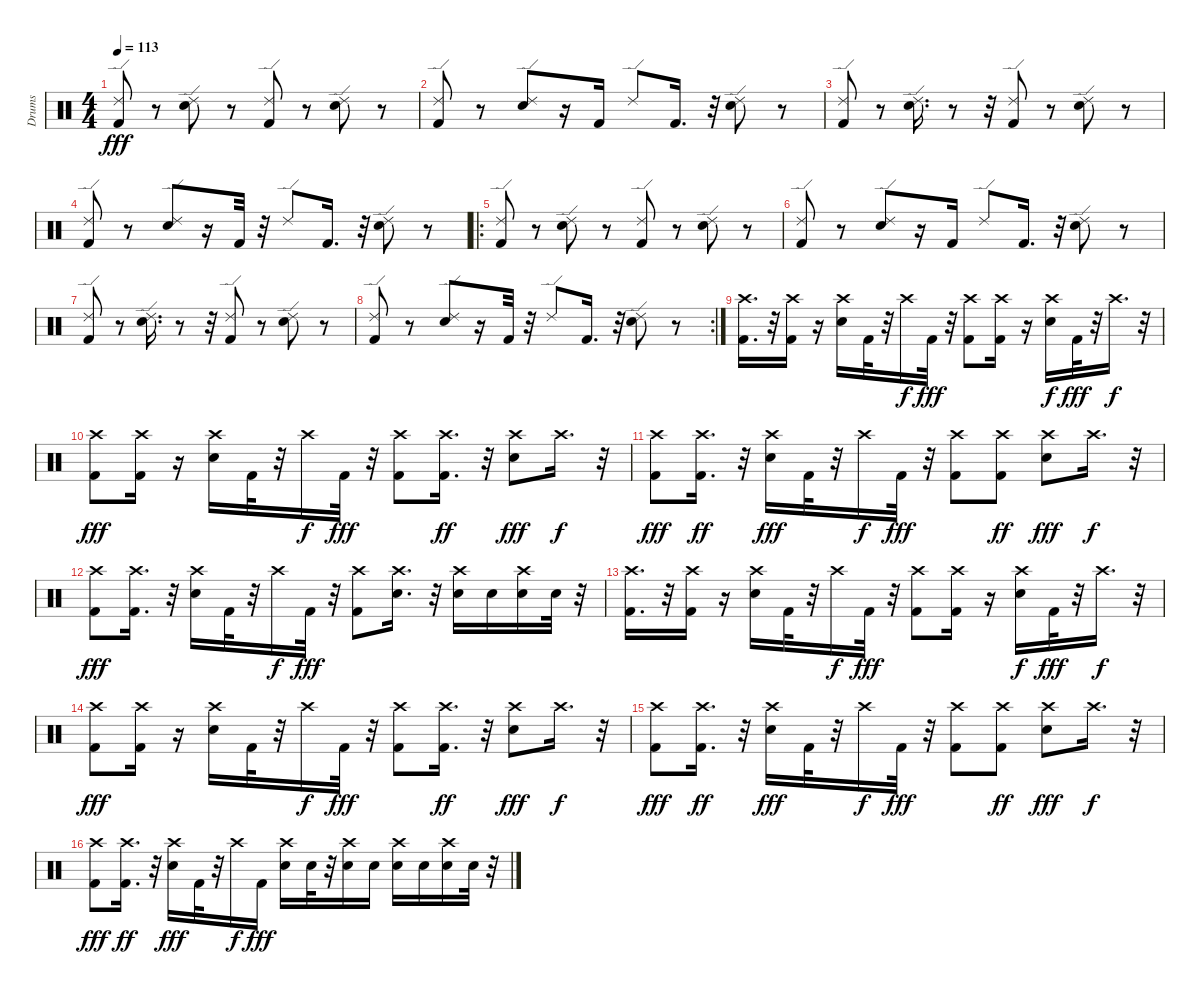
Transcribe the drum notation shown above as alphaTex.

\track ("Drums" "Drums") {instrument percussion}
\staff {score}
\articulation defaults
\ts (4 4)
\tempo 113
\clef neutral
\ks c
("Kick (hit) 2" "Ride (edge) 2").8{dy fff} r.8 ("Ride (edge) 2" "Snare (hit) 2").8 r.8 ("Kick (hit) 2" "Ride (edge) 2").8 r.8 ("Snare (hit) 2" "Ride (edge) 2").8 r.8 |
("Kick (hit) 2" "Ride (edge) 2").8 r.8 ("Snare (hit) 2" "Ride (edge) 2").8 r.16 "Kick (hit) 2".16 "Ride (edge) 2".8 "Kick (hit) 2".16{d} r.32 ("Snare (hit) 2" "Ride (edge) 2").8 r.8 |
("Kick (hit) 2" "Ride (edge) 2").8 r.8 ("Snare (hit) 2" "Ride (edge) 2").16{d} r.8 r.32 ("Kick (hit) 2" "Ride (edge) 2").8 r.8 ("Ride (edge) 2" "Snare (hit) 2").8 r.8 |
("Kick (hit) 2" "Ride (edge) 2").8 r.8 ("Snare (hit) 2" "Ride (edge) 2").8 r.16 "Kick (hit) 2".32 r.32 "Ride (edge) 2".8 "Kick (hit) 2".16{d} r.32 ("Snare (hit) 2" "Ride (edge) 2").8 r.8 |
\ro
("Kick (hit) 2" "Ride (edge) 2").8 r.8 ("Ride (edge) 2" "Snare (hit) 2").8 r.8 ("Kick (hit) 2" "Ride (edge) 2").8 r.8 ("Snare (hit) 2" "Ride (edge) 2").8 r.8 |
("Kick (hit) 2" "Ride (edge) 2").8 r.8 ("Snare (hit) 2" "Ride (edge) 2").8 r.16 "Kick (hit) 2".16 "Ride (edge) 2".8 "Kick (hit) 2".16{d} r.32 ("Snare (hit) 2" "Ride (edge) 2").8 r.8 |
("Kick (hit) 2" "Ride (edge) 2").8 r.8 ("Snare (hit) 2" "Ride (edge) 2").16{d} r.8 r.32 ("Kick (hit) 2" "Ride (edge) 2").8 r.8 ("Ride (edge) 2" "Snare (hit) 2").8 r.8 |
\rc 2
("Kick (hit) 2" "Ride (edge) 2").8 r.8 ("Snare (hit) 2" "Ride (edge) 2").8 r.16 "Kick (hit) 2".32 r.32 "Ride (edge) 2".8 "Kick (hit) 2".16{d} r.32 ("Snare (hit) 2" "Ride (edge) 2").8 r.8 |
("Kick (hit) 2" "Crash high (hit)").16{d} r.32 ("Kick (hit) 2" "Crash high (hit)").16 r.16 ("Snare (hit) 2" "Crash high (hit)").16 "Kick (hit) 2".32 r.32 "Crash high (hit)".16{dy f} "Kick (hit) 2".32{dy fff} r.32 ("Kick (hit) 2" "Crash high (hit)").8 ("Kick (hit) 2" "Crash high (hit)").16 r.16 ("Snare (hit) 2" "Crash high (hit)").16{dy f} "Kick (hit) 2".32{dy fff} r.32 "Crash high (hit)".16{d dy f} r.32 |
("Kick (hit) 2" "Crash high (hit)").8{dy fff} ("Kick (hit) 2" "Crash high (hit)").16 r.16 ("Snare (hit) 2" "Crash high (hit)").16 "Kick (hit) 2".32 r.32 "Crash high (hit)".16{dy f} "Kick (hit) 2".32{dy fff} r.32 ("Kick (hit) 2" "Crash high (hit)").8 ("Kick (hit) 2" "Crash high (hit)").16{d dy ff} r.32 ("Snare (hit) 2" "Crash high (hit)").8{dy fff} "Crash high (hit)".16{d dy f} r.32 |
("Kick (hit) 2" "Crash high (hit)").8{dy fff} ("Kick (hit) 2" "Crash high (hit)").16{d dy ff} r.32 ("Snare (hit) 2" "Crash high (hit)").16{dy fff} "Kick (hit) 2".32 r.32 "Crash high (hit)".16{dy f} "Kick (hit) 2".32{dy fff} r.32 ("Kick (hit) 2" "Crash high (hit)").8 ("Kick (hit) 2" "Crash high (hit)").8{dy ff} ("Snare (hit) 2" "Crash high (hit)").8{dy fff} "Crash high (hit)".16{d dy f} r.32 |
("Kick (hit) 2" "Crash high (hit)").8{dy fff} ("Kick (hit) 2" "Crash high (hit)").16{d} r.32 ("Snare (hit) 2" "Crash high (hit)").16 "Kick (hit) 2".32 r.32 "Crash high (hit)".16{dy f} "Kick (hit) 2".32{dy fff} r.32 ("Kick (hit) 2" "Crash high (hit)").8 ("Snare (hit) 2" "Crash high (hit)").16{d} r.32 ("Snare (hit) 2" "Crash high (hit)").16 "Snare (hit) 2".16 ("Snare (hit) 2" "Crash high (hit)").16 "Snare (hit) 2".32 r.32 |
("Kick (hit) 2" "Crash high (hit)").16{d} r.32 ("Kick (hit) 2" "Crash high (hit)").16 r.16 ("Snare (hit) 2" "Crash high (hit)").16 "Kick (hit) 2".32 r.32 "Crash high (hit)".16{dy f} "Kick (hit) 2".32{dy fff} r.32 ("Kick (hit) 2" "Crash high (hit)").8 ("Kick (hit) 2" "Crash high (hit)").16 r.16 ("Snare (hit) 2" "Crash high (hit)").16{dy f} "Kick (hit) 2".32{dy fff} r.32 "Crash high (hit)".16{d dy f} r.32 |
("Kick (hit) 2" "Crash high (hit)").8{dy fff} ("Kick (hit) 2" "Crash high (hit)").16 r.16 ("Snare (hit) 2" "Crash high (hit)").16 "Kick (hit) 2".32 r.32 "Crash high (hit)".16{dy f} "Kick (hit) 2".32{dy fff} r.32 ("Kick (hit) 2" "Crash high (hit)").8 ("Kick (hit) 2" "Crash high (hit)").16{d dy ff} r.32 ("Snare (hit) 2" "Crash high (hit)").8{dy fff} "Crash high (hit)".16{d dy f} r.32 |
("Kick (hit) 2" "Crash high (hit)").8{dy fff} ("Kick (hit) 2" "Crash high (hit)").16{d dy ff} r.32 ("Snare (hit) 2" "Crash high (hit)").16{dy fff} "Kick (hit) 2".32 r.32 "Crash high (hit)".16{dy f} "Kick (hit) 2".32{dy fff} r.32 ("Kick (hit) 2" "Crash high (hit)").8 ("Kick (hit) 2" "Crash high (hit)").8{dy ff} ("Snare (hit) 2" "Crash high (hit)").8{dy fff} "Crash high (hit)".16{d dy f} r.32 |
("Kick (hit) 2" "Crash high (hit)").8{dy fff} ("Kick (hit) 2" "Crash high (hit)").16{d dy ff} r.32 ("Snare (hit) 2" "Crash high (hit)").16{dy fff} "Kick (hit) 2".32 r.32 "Crash high (hit)".16{dy f} "Kick (hit) 2".16{dy fff} ("Snare (hit) 2" "Crash high (hit)").16 "Snare (hit) 2".32 r.32 ("Snare (hit) 2" "Crash high (hit)").16 "Snare (hit) 2".16 ("Snare (hit) 2" "Crash high (hit)").16 "Snare (hit) 2".16 ("Snare (hit) 2" "Crash high (hit)").16 "Snare (hit) 2".32 r.32
